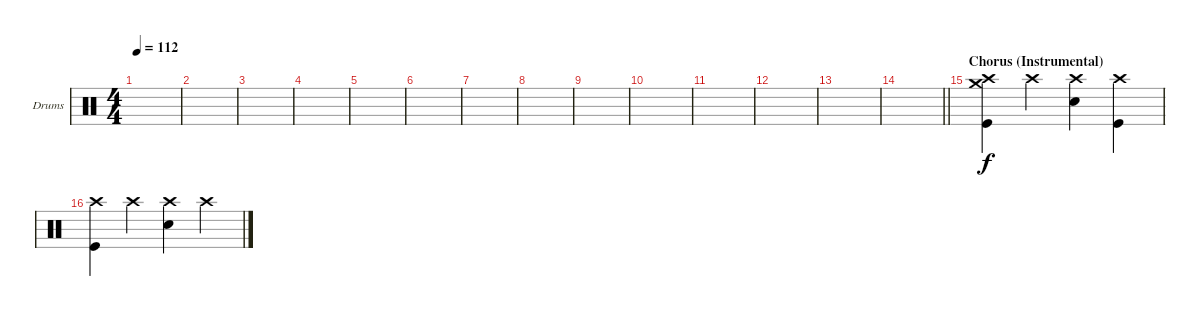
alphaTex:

\bracketExtendMode groupsimilarinstruments
\firstSystemTrackNameOrientation horizontal
\otherSystemsTrackNameOrientation horizontal
\track ("Drumkit" "Drums") {instrument percussion}
\staff {score}
\articulation defaults
\ts (4 4)
\tempo 112
\clef neutral
\scale
0.333333
\ks c
|
\scale
0.333333 |
\scale
0.333333 |
\scale
0.333333 |
\scale
0.333333 |
\scale
0.333333 |
\scale
0.333333 |
\scale
0.333333 |
\scale
0.333333 |
\scale
0.333333 |
\scale
0.333333 |
\scale
0.333333 |
\scale
0.333333 |
\scale
0.333333
\barLineRight lightlight
|
\section ("" "Chorus (Instrumental)")
\scale
0.333333 ("Kick (hit)" "Crash medium (hit)" "Crash high (hit)").4 "Crash high (hit)".4 ("Crash high (hit)" "Snare (hit) 2").4 ("Crash high (hit)" "Kick (hit)").4 |
\scale
0.333333 ("Kick (hit)" "Crash high (hit)").4 "Crash high (hit)".4 ("Crash high (hit)" "Snare (hit) 2").4 "Crash high (hit)".4
